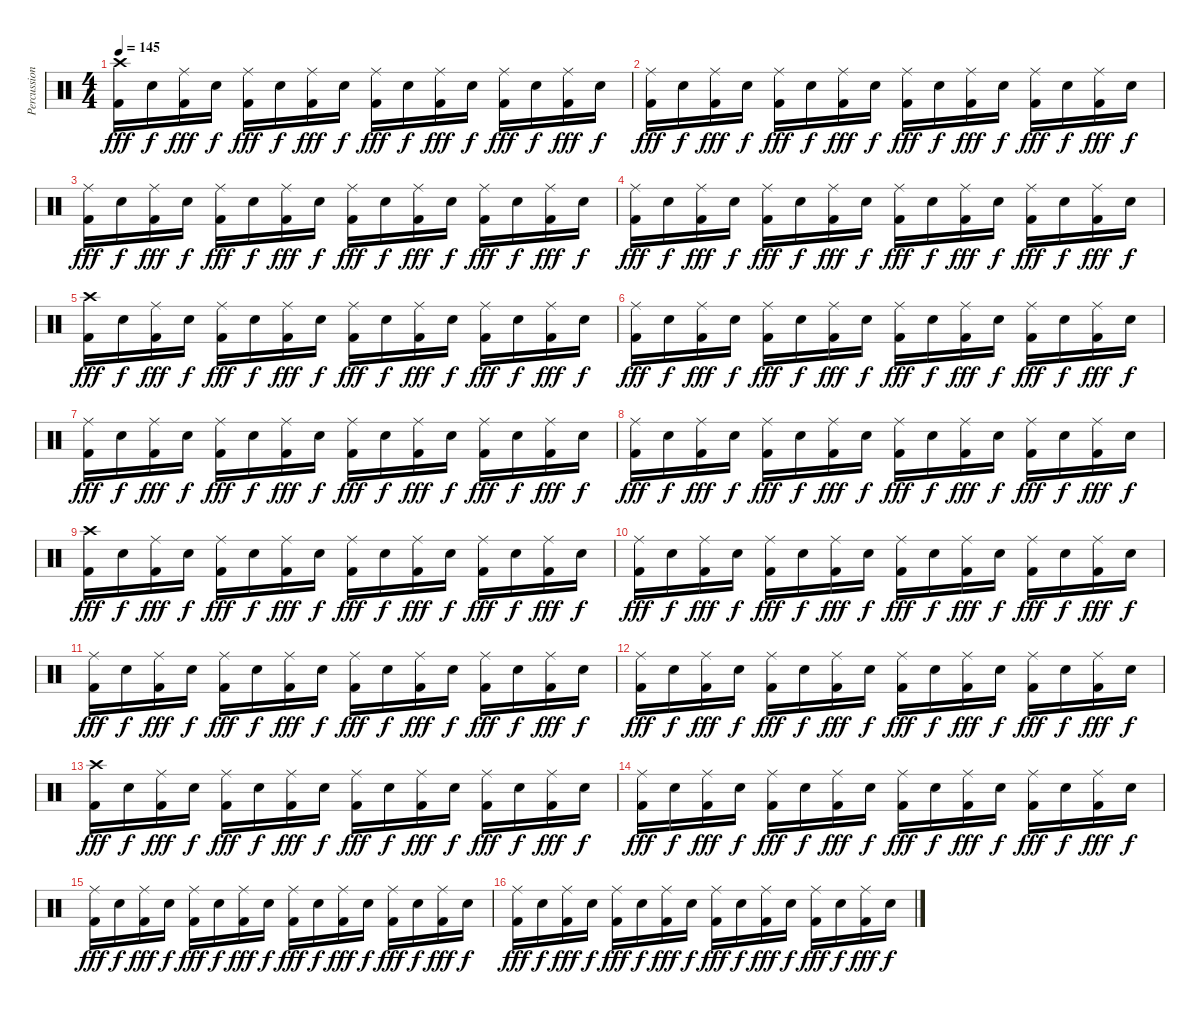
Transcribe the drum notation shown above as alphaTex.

\track ("Percussion" "Percussion") {instrument percussion}
\staff {score}
\articulation defaults
\ts (4 4)
\tempo 145
\clef neutral
\ks c
("Crash high (hit)" "Kick (hit) 2").16{dy fff} "Snare (hit) 2".16{dy f} ("Ride (middle)" "Kick (hit) 2").16{dy fff} "Snare (hit) 2".16{dy f} ("Ride (middle)" "Kick (hit) 2").16{dy fff} "Snare (hit) 2".16{dy f} ("Ride (middle)" "Kick (hit) 2").16{dy fff} "Snare (hit) 2".16{dy f} ("Ride (middle)" "Kick (hit) 2").16{dy fff} "Snare (hit) 2".16{dy f} ("Ride (middle)" "Kick (hit) 2").16{dy fff} "Snare (hit) 2".16{dy f} ("Ride (middle)" "Kick (hit) 2").16{dy fff} "Snare (hit) 2".16{dy f} ("Ride (middle)" "Kick (hit) 2").16{dy fff} "Snare (hit) 2".16{dy f} |
("Ride (middle)" "Kick (hit) 2").16{dy fff} "Snare (hit) 2".16{dy f} ("Ride (middle)" "Kick (hit) 2").16{dy fff} "Snare (hit) 2".16{dy f} ("Ride (middle)" "Kick (hit) 2").16{dy fff} "Snare (hit) 2".16{dy f} ("Ride (middle)" "Kick (hit) 2").16{dy fff} "Snare (hit) 2".16{dy f} ("Ride (middle)" "Kick (hit) 2").16{dy fff} "Snare (hit) 2".16{dy f} ("Ride (middle)" "Kick (hit) 2").16{dy fff} "Snare (hit) 2".16{dy f} ("Ride (middle)" "Kick (hit) 2").16{dy fff} "Snare (hit) 2".16{dy f} ("Ride (middle)" "Kick (hit) 2").16{dy fff} "Snare (hit) 2".16{dy f} |
("Ride (middle)" "Kick (hit) 2").16{dy fff} "Snare (hit) 2".16{dy f} ("Ride (middle)" "Kick (hit) 2").16{dy fff} "Snare (hit) 2".16{dy f} ("Ride (middle)" "Kick (hit) 2").16{dy fff} "Snare (hit) 2".16{dy f} ("Ride (middle)" "Kick (hit) 2").16{dy fff} "Snare (hit) 2".16{dy f} ("Ride (middle)" "Kick (hit) 2").16{dy fff} "Snare (hit) 2".16{dy f} ("Ride (middle)" "Kick (hit) 2").16{dy fff} "Snare (hit) 2".16{dy f} ("Ride (middle)" "Kick (hit) 2").16{dy fff} "Snare (hit) 2".16{dy f} ("Ride (middle)" "Kick (hit) 2").16{dy fff} "Snare (hit) 2".16{dy f} |
("Ride (middle)" "Kick (hit) 2").16{dy fff} "Snare (hit) 2".16{dy f} ("Ride (middle)" "Kick (hit) 2").16{dy fff} "Snare (hit) 2".16{dy f} ("Ride (middle)" "Kick (hit) 2").16{dy fff} "Snare (hit) 2".16{dy f} ("Ride (middle)" "Kick (hit) 2").16{dy fff} "Snare (hit) 2".16{dy f} ("Ride (middle)" "Kick (hit) 2").16{dy fff} "Snare (hit) 2".16{dy f} ("Ride (middle)" "Kick (hit) 2").16{dy fff} "Snare (hit) 2".16{dy f} ("Ride (middle)" "Kick (hit) 2").16{dy fff} "Snare (hit) 2".16{dy f} ("Ride (middle)" "Kick (hit) 2").16{dy fff} "Snare (hit) 2".16{dy f} |
("Crash high (hit)" "Kick (hit) 2").16{dy fff} "Snare (hit) 2".16{dy f} ("Ride (middle)" "Kick (hit) 2").16{dy fff} "Snare (hit) 2".16{dy f} ("Ride (middle)" "Kick (hit) 2").16{dy fff} "Snare (hit) 2".16{dy f} ("Ride (middle)" "Kick (hit) 2").16{dy fff} "Snare (hit) 2".16{dy f} ("Ride (middle)" "Kick (hit) 2").16{dy fff} "Snare (hit) 2".16{dy f} ("Ride (middle)" "Kick (hit) 2").16{dy fff} "Snare (hit) 2".16{dy f} ("Ride (middle)" "Kick (hit) 2").16{dy fff} "Snare (hit) 2".16{dy f} ("Ride (middle)" "Kick (hit) 2").16{dy fff} "Snare (hit) 2".16{dy f} |
("Ride (middle)" "Kick (hit) 2").16{dy fff} "Snare (hit) 2".16{dy f} ("Ride (middle)" "Kick (hit) 2").16{dy fff} "Snare (hit) 2".16{dy f} ("Ride (middle)" "Kick (hit) 2").16{dy fff} "Snare (hit) 2".16{dy f} ("Ride (middle)" "Kick (hit) 2").16{dy fff} "Snare (hit) 2".16{dy f} ("Ride (middle)" "Kick (hit) 2").16{dy fff} "Snare (hit) 2".16{dy f} ("Ride (middle)" "Kick (hit) 2").16{dy fff} "Snare (hit) 2".16{dy f} ("Ride (middle)" "Kick (hit) 2").16{dy fff} "Snare (hit) 2".16{dy f} ("Ride (middle)" "Kick (hit) 2").16{dy fff} "Snare (hit) 2".16{dy f} |
("Ride (middle)" "Kick (hit) 2").16{dy fff} "Snare (hit) 2".16{dy f} ("Ride (middle)" "Kick (hit) 2").16{dy fff} "Snare (hit) 2".16{dy f} ("Ride (middle)" "Kick (hit) 2").16{dy fff} "Snare (hit) 2".16{dy f} ("Ride (middle)" "Kick (hit) 2").16{dy fff} "Snare (hit) 2".16{dy f} ("Ride (middle)" "Kick (hit) 2").16{dy fff} "Snare (hit) 2".16{dy f} ("Ride (middle)" "Kick (hit) 2").16{dy fff} "Snare (hit) 2".16{dy f} ("Ride (middle)" "Kick (hit) 2").16{dy fff} "Snare (hit) 2".16{dy f} ("Ride (middle)" "Kick (hit) 2").16{dy fff} "Snare (hit) 2".16{dy f} |
("Ride (middle)" "Kick (hit) 2").16{dy fff} "Snare (hit) 2".16{dy f} ("Ride (middle)" "Kick (hit) 2").16{dy fff} "Snare (hit) 2".16{dy f} ("Ride (middle)" "Kick (hit) 2").16{dy fff} "Snare (hit) 2".16{dy f} ("Ride (middle)" "Kick (hit) 2").16{dy fff} "Snare (hit) 2".16{dy f} ("Ride (middle)" "Kick (hit) 2").16{dy fff} "Snare (hit) 2".16{dy f} ("Ride (middle)" "Kick (hit) 2").16{dy fff} "Snare (hit) 2".16{dy f} ("Ride (middle)" "Kick (hit) 2").16{dy fff} "Snare (hit) 2".16{dy f} ("Ride (middle)" "Kick (hit) 2").16{dy fff} "Snare (hit) 2".16{dy f} |
("Crash high (hit)" "Kick (hit) 2").16{dy fff} "Snare (hit) 2".16{dy f} ("Ride (middle)" "Kick (hit) 2").16{dy fff} "Snare (hit) 2".16{dy f} ("Ride (middle)" "Kick (hit) 2").16{dy fff} "Snare (hit) 2".16{dy f} ("Ride (middle)" "Kick (hit) 2").16{dy fff} "Snare (hit) 2".16{dy f} ("Ride (middle)" "Kick (hit) 2").16{dy fff} "Snare (hit) 2".16{dy f} ("Ride (middle)" "Kick (hit) 2").16{dy fff} "Snare (hit) 2".16{dy f} ("Ride (middle)" "Kick (hit) 2").16{dy fff} "Snare (hit) 2".16{dy f} ("Ride (middle)" "Kick (hit) 2").16{dy fff} "Snare (hit) 2".16{dy f} |
("Ride (middle)" "Kick (hit) 2").16{dy fff} "Snare (hit) 2".16{dy f} ("Ride (middle)" "Kick (hit) 2").16{dy fff} "Snare (hit) 2".16{dy f} ("Ride (middle)" "Kick (hit) 2").16{dy fff} "Snare (hit) 2".16{dy f} ("Ride (middle)" "Kick (hit) 2").16{dy fff} "Snare (hit) 2".16{dy f} ("Ride (middle)" "Kick (hit) 2").16{dy fff} "Snare (hit) 2".16{dy f} ("Ride (middle)" "Kick (hit) 2").16{dy fff} "Snare (hit) 2".16{dy f} ("Ride (middle)" "Kick (hit) 2").16{dy fff} "Snare (hit) 2".16{dy f} ("Ride (middle)" "Kick (hit) 2").16{dy fff} "Snare (hit) 2".16{dy f} |
("Ride (middle)" "Kick (hit) 2").16{dy fff} "Snare (hit) 2".16{dy f} ("Ride (middle)" "Kick (hit) 2").16{dy fff} "Snare (hit) 2".16{dy f} ("Ride (middle)" "Kick (hit) 2").16{dy fff} "Snare (hit) 2".16{dy f} ("Ride (middle)" "Kick (hit) 2").16{dy fff} "Snare (hit) 2".16{dy f} ("Ride (middle)" "Kick (hit) 2").16{dy fff} "Snare (hit) 2".16{dy f} ("Ride (middle)" "Kick (hit) 2").16{dy fff} "Snare (hit) 2".16{dy f} ("Ride (middle)" "Kick (hit) 2").16{dy fff} "Snare (hit) 2".16{dy f} ("Ride (middle)" "Kick (hit) 2").16{dy fff} "Snare (hit) 2".16{dy f} |
("Ride (middle)" "Kick (hit) 2").16{dy fff} "Snare (hit) 2".16{dy f} ("Ride (middle)" "Kick (hit) 2").16{dy fff} "Snare (hit) 2".16{dy f} ("Ride (middle)" "Kick (hit) 2").16{dy fff} "Snare (hit) 2".16{dy f} ("Ride (middle)" "Kick (hit) 2").16{dy fff} "Snare (hit) 2".16{dy f} ("Ride (middle)" "Kick (hit) 2").16{dy fff} "Snare (hit) 2".16{dy f} ("Ride (middle)" "Kick (hit) 2").16{dy fff} "Snare (hit) 2".16{dy f} ("Ride (middle)" "Kick (hit) 2").16{dy fff} "Snare (hit) 2".16{dy f} ("Ride (middle)" "Kick (hit) 2").16{dy fff} "Snare (hit) 2".16{dy f} |
("Crash high (hit)" "Kick (hit) 2").16{dy fff} "Snare (hit) 2".16{dy f} ("Ride (middle)" "Kick (hit) 2").16{dy fff} "Snare (hit) 2".16{dy f} ("Ride (middle)" "Kick (hit) 2").16{dy fff} "Snare (hit) 2".16{dy f} ("Ride (middle)" "Kick (hit) 2").16{dy fff} "Snare (hit) 2".16{dy f} ("Ride (middle)" "Kick (hit) 2").16{dy fff} "Snare (hit) 2".16{dy f} ("Ride (middle)" "Kick (hit) 2").16{dy fff} "Snare (hit) 2".16{dy f} ("Ride (middle)" "Kick (hit) 2").16{dy fff} "Snare (hit) 2".16{dy f} ("Ride (middle)" "Kick (hit) 2").16{dy fff} "Snare (hit) 2".16{dy f} |
("Ride (middle)" "Kick (hit) 2").16{dy fff} "Snare (hit) 2".16{dy f} ("Ride (middle)" "Kick (hit) 2").16{dy fff} "Snare (hit) 2".16{dy f} ("Ride (middle)" "Kick (hit) 2").16{dy fff} "Snare (hit) 2".16{dy f} ("Ride (middle)" "Kick (hit) 2").16{dy fff} "Snare (hit) 2".16{dy f} ("Ride (middle)" "Kick (hit) 2").16{dy fff} "Snare (hit) 2".16{dy f} ("Ride (middle)" "Kick (hit) 2").16{dy fff} "Snare (hit) 2".16{dy f} ("Ride (middle)" "Kick (hit) 2").16{dy fff} "Snare (hit) 2".16{dy f} ("Ride (middle)" "Kick (hit) 2").16{dy fff} "Snare (hit) 2".16{dy f} |
("Ride (middle)" "Kick (hit) 2").16{dy fff} "Snare (hit) 2".16{dy f} ("Ride (middle)" "Kick (hit) 2").16{dy fff} "Snare (hit) 2".16{dy f} ("Ride (middle)" "Kick (hit) 2").16{dy fff} "Snare (hit) 2".16{dy f} ("Ride (middle)" "Kick (hit) 2").16{dy fff} "Snare (hit) 2".16{dy f} ("Ride (middle)" "Kick (hit) 2").16{dy fff} "Snare (hit) 2".16{dy f} ("Ride (middle)" "Kick (hit) 2").16{dy fff} "Snare (hit) 2".16{dy f} ("Ride (middle)" "Kick (hit) 2").16{dy fff} "Snare (hit) 2".16{dy f} ("Ride (middle)" "Kick (hit) 2").16{dy fff} "Snare (hit) 2".16{dy f} |
("Ride (middle)" "Kick (hit) 2").16{dy fff} "Snare (hit) 2".16{dy f} ("Ride (middle)" "Kick (hit) 2").16{dy fff} "Snare (hit) 2".16{dy f} ("Ride (middle)" "Kick (hit) 2").16{dy fff} "Snare (hit) 2".16{dy f} ("Ride (middle)" "Kick (hit) 2").16{dy fff} "Snare (hit) 2".16{dy f} ("Ride (middle)" "Kick (hit) 2").16{dy fff} "Snare (hit) 2".16{dy f} ("Ride (middle)" "Kick (hit) 2").16{dy fff} "Snare (hit) 2".16{dy f} ("Ride (middle)" "Kick (hit) 2").16{dy fff} "Snare (hit) 2".16{dy f} ("Ride (middle)" "Kick (hit) 2").16{dy fff} "Snare (hit) 2".16{dy f}
